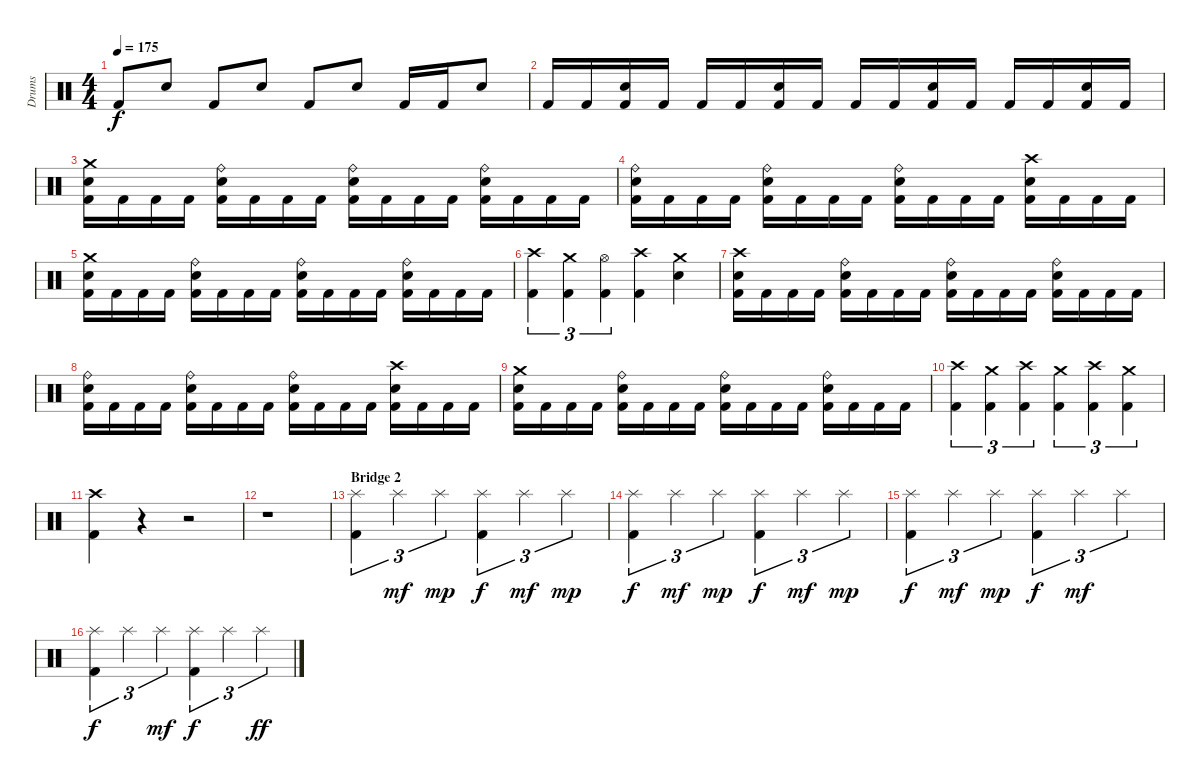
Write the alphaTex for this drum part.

\track ("Drums" "Drums") {instrument percussion}
\staff {score}
\articulation defaults
\ts (4 4)
\tempo 175
\clef neutral
\ks c "Kick (hit) 2".8{dy f} "Electric Snare (hit)".8 "Kick (hit) 2".8 "Electric Snare (hit)".8 "Kick (hit) 2".8 "Electric Snare (hit)".8 "Kick (hit) 2".16 "Kick (hit) 2".16 "Electric Snare (hit)".8
|
"Kick (hit) 2".16 "Kick (hit) 2".16 ("Kick (hit) 2" "Electric Snare (hit)").16 "Kick (hit) 2".16 "Kick (hit) 2".16 "Kick (hit) 2".16 ("Kick (hit) 2" "Electric Snare (hit)").16 "Kick (hit) 2".16 "Kick (hit) 2".16 "Kick (hit) 2".16 ("Kick (hit) 2" "Electric Snare (hit)").16 "Kick (hit) 2".16 "Kick (hit) 2".16 "Kick (hit) 2".16 ("Kick (hit) 2" "Electric Snare (hit)").16 "Kick (hit) 2".16 |
("Kick (hit) 2" "Electric Snare (hit)" "Crash medium (hit)").16 "Kick (hit) 2".16 "Kick (hit) 2".16 "Kick (hit) 2".16 ("Kick (hit) 2" "Electric Snare (hit)" "Ride (bell)").16 "Kick (hit) 2".16 "Kick (hit) 2".16 "Kick (hit) 2".16 ("Kick (hit) 2" "Electric Snare (hit)" "Ride (bell)").16 "Kick (hit) 2".16 "Kick (hit) 2".16 "Kick (hit) 2".16 ("Kick (hit) 2" "Electric Snare (hit)" "Ride (bell)").16 "Kick (hit) 2".16 "Kick (hit) 2".16 "Kick (hit) 2".16 |
("Kick (hit) 2" "Electric Snare (hit)" "Ride (bell)").16 "Kick (hit) 2".16 "Kick (hit) 2".16 "Kick (hit) 2".16 ("Kick (hit) 2" "Electric Snare (hit)" "Ride (bell)").16 "Kick (hit) 2".16 "Kick (hit) 2".16 "Kick (hit) 2".16 ("Kick (hit) 2" "Electric Snare (hit)" "Ride (bell)").16 "Kick (hit) 2".16 "Kick (hit) 2".16 "Kick (hit) 2".16 ("Kick (hit) 2" "Electric Snare (hit)" "Crash high (hit)").16 "Kick (hit) 2".16 "Kick (hit) 2".16 "Kick (hit) 2".16 |
("Kick (hit) 2" "Electric Snare (hit)" "Crash medium (hit)").16 "Kick (hit) 2".16 "Kick (hit) 2".16 "Kick (hit) 2".16 ("Kick (hit) 2" "Electric Snare (hit)" "Ride (bell)").16 "Kick (hit) 2".16 "Kick (hit) 2".16 "Kick (hit) 2".16 ("Kick (hit) 2" "Electric Snare (hit)" "Ride (bell)").16 "Kick (hit) 2".16 "Kick (hit) 2".16 "Kick (hit) 2".16 ("Kick (hit) 2" "Electric Snare (hit)" "Ride (bell)").16 "Kick (hit) 2".16 "Kick (hit) 2".16 "Kick (hit) 2".16 |
("Kick (hit) 2" "Crash high (hit)").4{tu (3 2)} ("Kick (hit) 2" "Crash medium (hit)").4{tu (3 2)} ("Kick (hit) 2" "Hi-Hat (open)").4{tu (3 2)} ("Kick (hit) 2" "Crash high (hit)").4 ("Electric Snare (hit)" "Crash medium (hit)").4 |
("Kick (hit) 2" "Electric Snare (hit)" "Crash high (hit)").16 "Kick (hit) 2".16 "Kick (hit) 2".16 "Kick (hit) 2".16 ("Kick (hit) 2" "Electric Snare (hit)" "Ride (bell)").16 "Kick (hit) 2".16 "Kick (hit) 2".16 "Kick (hit) 2".16 ("Kick (hit) 2" "Electric Snare (hit)" "Ride (bell)").16 "Kick (hit) 2".16 "Kick (hit) 2".16 "Kick (hit) 2".16 ("Kick (hit) 2" "Electric Snare (hit)" "Ride (bell)").16 "Kick (hit) 2".16 "Kick (hit) 2".16 "Kick (hit) 2".16 |
("Kick (hit) 2" "Electric Snare (hit)" "Ride (bell)").16 "Kick (hit) 2".16 "Kick (hit) 2".16 "Kick (hit) 2".16 ("Kick (hit) 2" "Electric Snare (hit)" "Ride (bell)").16 "Kick (hit) 2".16 "Kick (hit) 2".16 "Kick (hit) 2".16 ("Kick (hit) 2" "Electric Snare (hit)" "Ride (bell)").16 "Kick (hit) 2".16 "Kick (hit) 2".16 "Kick (hit) 2".16 ("Kick (hit) 2" "Electric Snare (hit)" "Crash high (hit)").16 "Kick (hit) 2".16 "Kick (hit) 2".16 "Kick (hit) 2".16 |
("Kick (hit) 2" "Electric Snare (hit)" "Crash medium (hit)").16 "Kick (hit) 2".16 "Kick (hit) 2".16 "Kick (hit) 2".16 ("Kick (hit) 2" "Electric Snare (hit)" "Ride (bell)").16 "Kick (hit) 2".16 "Kick (hit) 2".16 "Kick (hit) 2".16 ("Kick (hit) 2" "Electric Snare (hit)" "Ride (bell)").16 "Kick (hit) 2".16 "Kick (hit) 2".16 "Kick (hit) 2".16 ("Kick (hit) 2" "Electric Snare (hit)" "Ride (bell)").16 "Kick (hit) 2".16 "Kick (hit) 2".16 "Kick (hit) 2".16 |
("Kick (hit) 2" "Crash high (hit)").4{tu (3 2)} ("Kick (hit) 2" "Crash medium (hit)").4{tu (3 2)} ("Kick (hit) 2" "Crash high (hit)").4{tu (3 2)} ("Kick (hit) 2" "Crash medium (hit)").4{tu (3 2)} ("Kick (hit) 2" "Crash high (hit)").4{tu (3 2)} ("Kick (hit) 2" "Crash medium (hit)").4{tu (3 2)} |
("Kick (hit) 2" "Crash high (hit)").4 r.4 r.2 |
r.1 |
\section ("" "Bridge 2")
("Kick (hit) 2" "Splash (hit)").4{tu (3 2)} "Splash (hit)".4{tu (3 2) dy mf} "Splash (hit)".4{tu (3 2) dy mp} ("Kick (hit) 2" "Splash (hit)").4{tu (3 2) dy f} "Splash (hit)".4{tu (3 2) dy mf} "Splash (hit)".4{tu (3 2) dy mp} |
("Kick (hit) 2" "Splash (hit)").4{tu (3 2) dy f} "Splash (hit)".4{tu (3 2) dy mf} "Splash (hit)".4{tu (3 2) dy mp} ("Kick (hit) 2" "Splash (hit)").4{tu (3 2) dy f} "Splash (hit)".4{tu (3 2) dy mf} "Splash (hit)".4{tu (3 2) dy mp} |
("Kick (hit) 2" "Splash (hit)").4{tu (3 2) dy f} "Splash (hit)".4{tu (3 2) dy mf} "Splash (hit)".4{tu (3 2) dy mp} ("Kick (hit) 2" "Splash (hit)").4{tu (3 2) dy f} "Splash (hit)".4{tu (3 2) dy mf} "Splash (hit)".4{tu (3 2)} |
("Kick (hit) 2" "Splash (hit)").4{tu (3 2) dy f} "Splash (hit)".4{tu (3 2)} "Splash (hit)".4{tu (3 2) dy mf} ("Kick (hit) 2" "Splash (hit)").4{tu (3 2) dy f} "Splash (hit)".4{tu (3 2)} "Splash (hit)".4{tu (3 2) dy ff}
